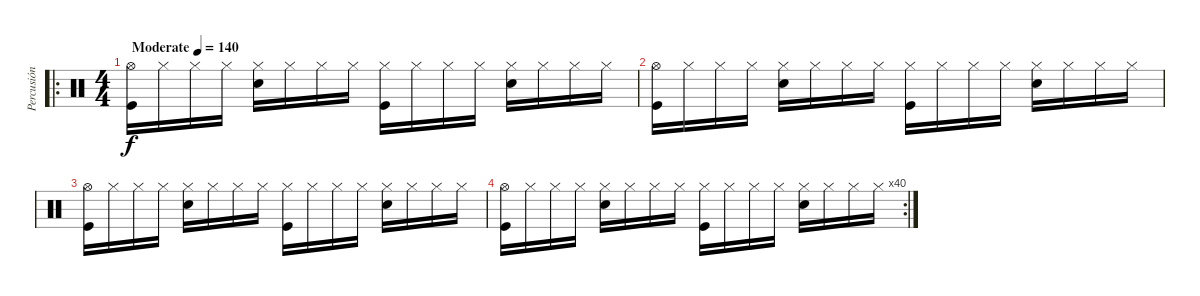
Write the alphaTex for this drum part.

\track ("Percusión" "Percusión") {instrument percussion}
\staff {score}
\articulation defaults
\ro
\ts (4 4)
\tempo (140 "Moderate")
\clef neutral
\ks c
("Hi-Hat (open)" "Kick (hit)").16{dy f} "Hi-Hat (closed)".16 "Hi-Hat (closed)".16 "Hi-Hat (closed)".16 ("Hi-Hat (closed)" "Snare (hit) 2").16 "Hi-Hat (closed)".16 "Hi-Hat (closed)".16 "Hi-Hat (closed)".16 ("Hi-Hat (closed)" "Kick (hit)").16 "Hi-Hat (closed)".16 "Hi-Hat (closed)".16 "Hi-Hat (closed)".16 ("Hi-Hat (closed)" "Snare (hit) 2").16 "Hi-Hat (closed)".16 "Hi-Hat (closed)".16 "Hi-Hat (closed)".16 |
("Hi-Hat (open)" "Kick (hit)").16 "Hi-Hat (closed)".16 "Hi-Hat (closed)".16 "Hi-Hat (closed)".16 ("Hi-Hat (closed)" "Snare (hit) 2").16 "Hi-Hat (closed)".16 "Hi-Hat (closed)".16 "Hi-Hat (closed)".16 ("Hi-Hat (closed)" "Kick (hit)").16 "Hi-Hat (closed)".16 "Hi-Hat (closed)".16 "Hi-Hat (closed)".16 ("Hi-Hat (closed)" "Snare (hit) 2").16 "Hi-Hat (closed)".16 "Hi-Hat (closed)".16 "Hi-Hat (closed)".16 |
("Hi-Hat (open)" "Kick (hit)").16 "Hi-Hat (closed)".16 "Hi-Hat (closed)".16 "Hi-Hat (closed)".16 ("Hi-Hat (closed)" "Snare (hit) 2").16 "Hi-Hat (closed)".16 "Hi-Hat (closed)".16 "Hi-Hat (closed)".16 ("Hi-Hat (closed)" "Kick (hit)").16 "Hi-Hat (closed)".16 "Hi-Hat (closed)".16 "Hi-Hat (closed)".16 ("Hi-Hat (closed)" "Snare (hit) 2").16 "Hi-Hat (closed)".16 "Hi-Hat (closed)".16 "Hi-Hat (closed)".16 |
\rc 40
("Hi-Hat (open)" "Kick (hit)").16 "Hi-Hat (closed)".16 "Hi-Hat (closed)".16 "Hi-Hat (closed)".16 ("Hi-Hat (closed)" "Snare (hit) 2").16 "Hi-Hat (closed)".16 "Hi-Hat (closed)".16 "Hi-Hat (closed)".16 ("Hi-Hat (closed)" "Kick (hit)").16 "Hi-Hat (closed)".16 "Hi-Hat (closed)".16 "Hi-Hat (closed)".16 ("Hi-Hat (closed)" "Snare (hit) 2").16 "Hi-Hat (closed)".16 "Hi-Hat (closed)".16 "Hi-Hat (closed)".16
